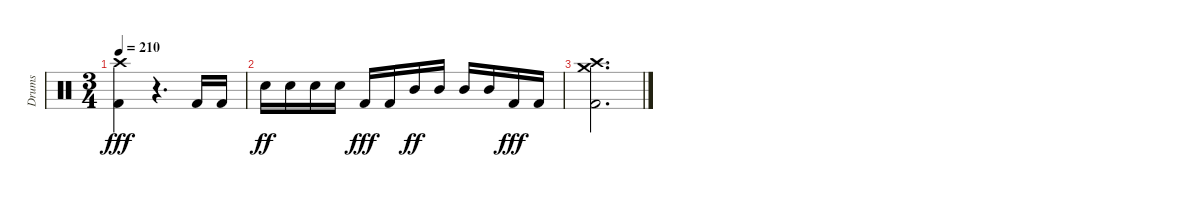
\track ("Drums" "Drums") {instrument percussion}
\staff {score}
\articulation defaults
\ts (3 4)
\tempo 210
\clef neutral
\ks c
("Crash high (hit)" "Kick (hit) 2").4{dy fff} r.4{d} "Kick (hit) 2".16 "Kick (hit) 2".16 |
"Snare (hit) 2".16{dy ff} "Snare (hit) 2".16 "Snare (hit) 2".16 "Snare (hit) 2".16 "Kick (hit) 2".16{dy fff} "Kick (hit) 2".16 "Mid Tom (hit)".16{dy ff} "Mid Tom (hit)".16 "Mid Tom (hit)".16 "Mid Tom (hit)".16 "Kick (hit) 2".16{dy fff} "Kick (hit) 2".16 |
("Crash medium (hit)" "Crash high (hit)" "Kick (hit) 2").2{d}
